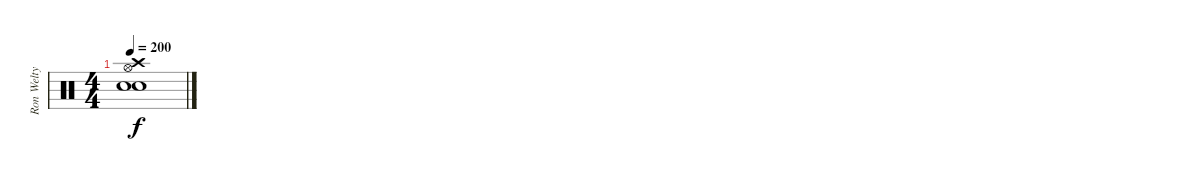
\track ("Ron Welty" "Ron Welty") {instrument percussion}
\staff {score}
\articulation defaults
\ts (4 4)
\tempo 200
\clef neutral
\ks c
("Snare (hit) 2" "Electric Snare (hit)" "Hi-Hat (open)" "Crash high (hit)").1{dy f}
